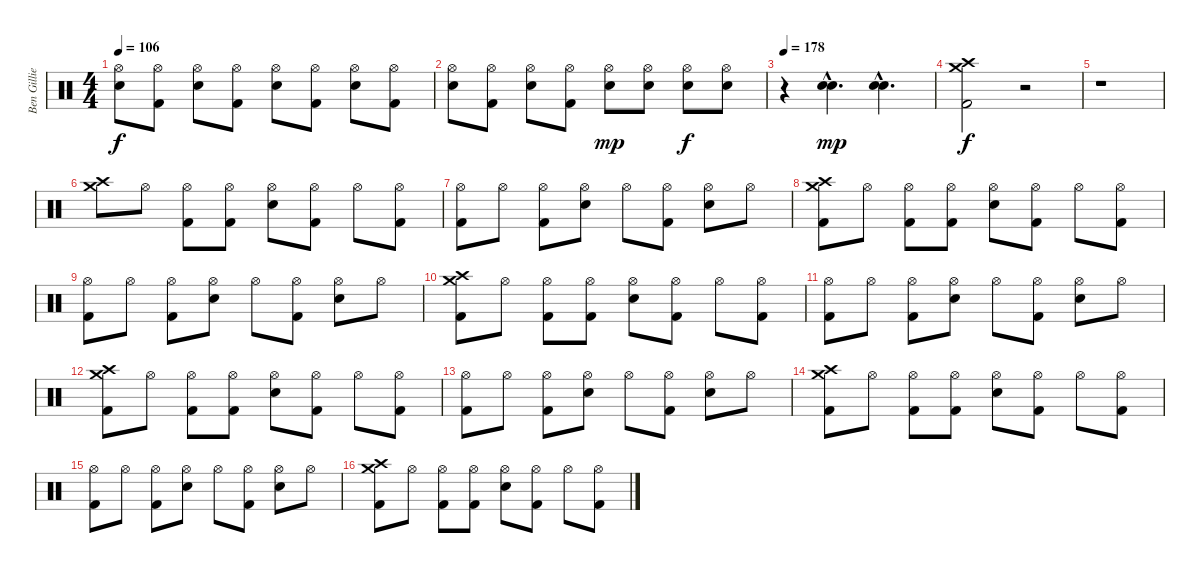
\track ("Ben Gillies" "Ben Gillie") {instrument percussion}
\staff {score}
\articulation defaults
\ts (4 4)
\tempo 106
\clef neutral
\ks c
("Hi-Hat (open)" "Electric Snare (hit)").8{dy f} ("Hi-Hat (open)" "Kick (hit) 2").8 ("Hi-Hat (open)" "Electric Snare (hit)").8 ("Hi-Hat (open)" "Kick (hit) 2").8 ("Hi-Hat (open)" "Electric Snare (hit)").8 ("Hi-Hat (open)" "Kick (hit) 2").8 ("Hi-Hat (open)" "Electric Snare (hit)").8 ("Hi-Hat (open)" "Kick (hit) 2").8 |
("Hi-Hat (open)" "Electric Snare (hit)").8 ("Hi-Hat (open)" "Kick (hit) 2").8 ("Hi-Hat (open)" "Electric Snare (hit)").8 ("Hi-Hat (open)" "Kick (hit) 2").8 ("Hi-Hat (open)" "Electric Snare (hit)").8{dy mp} ("Hi-Hat (open)" "Electric Snare (hit)").8 ("Hi-Hat (open)" "Electric Snare (hit)").8{dy f} ("Hi-Hat (open)" "Electric Snare (hit)").8 |
\tempo 178
r.4 ("Electric Snare (hit)"{hac} "Electric Snare (hit)"{hac}).4{d dy mp} ("Electric Snare (hit)"{hac} "Electric Snare (hit)"{hac}).4{d} |
("Crash high (hit)" "Crash medium (hit)" "Kick (hit) 2").2{dy f} r.2 |
r.1 |
("Crash high (hit)" "Crash medium (hit)").8 "Hi-Hat (open)".8 ("Hi-Hat (open)" "Kick (hit) 2").8 ("Hi-Hat (open)" "Kick (hit) 2").8 ("Hi-Hat (open)" "Electric Snare (hit)").8 ("Hi-Hat (open)" "Kick (hit) 2").8 "Hi-Hat (open)".8 ("Hi-Hat (open)" "Kick (hit) 2").8 |
("Hi-Hat (open)" "Kick (hit) 2").8 "Hi-Hat (open)".8 ("Hi-Hat (open)" "Kick (hit) 2").8 ("Hi-Hat (open)" "Electric Snare (hit)").8 "Hi-Hat (open)".8 ("Hi-Hat (open)" "Kick (hit) 2").8 ("Hi-Hat (open)" "Electric Snare (hit)").8 "Hi-Hat (open)".8 |
("Crash high (hit)" "Crash medium (hit)" "Kick (hit) 2").8 "Hi-Hat (open)".8 ("Hi-Hat (open)" "Kick (hit) 2").8 ("Hi-Hat (open)" "Kick (hit) 2").8 ("Hi-Hat (open)" "Electric Snare (hit)").8 ("Hi-Hat (open)" "Kick (hit) 2").8 "Hi-Hat (open)".8 ("Hi-Hat (open)" "Kick (hit) 2").8 |
("Hi-Hat (open)" "Kick (hit) 2").8 "Hi-Hat (open)".8 ("Hi-Hat (open)" "Kick (hit) 2").8 ("Hi-Hat (open)" "Electric Snare (hit)").8 "Hi-Hat (open)".8 ("Hi-Hat (open)" "Kick (hit) 2").8 ("Hi-Hat (open)" "Electric Snare (hit)").8 "Hi-Hat (open)".8 |
("Crash high (hit)" "Crash medium (hit)" "Kick (hit) 2").8 "Hi-Hat (open)".8 ("Hi-Hat (open)" "Kick (hit) 2").8 ("Hi-Hat (open)" "Kick (hit) 2").8 ("Hi-Hat (open)" "Electric Snare (hit)").8 ("Hi-Hat (open)" "Kick (hit) 2").8 "Hi-Hat (open)".8 ("Hi-Hat (open)" "Kick (hit) 2").8 |
("Hi-Hat (open)" "Kick (hit) 2").8 "Hi-Hat (open)".8 ("Hi-Hat (open)" "Kick (hit) 2").8 ("Hi-Hat (open)" "Electric Snare (hit)").8 "Hi-Hat (open)".8 ("Hi-Hat (open)" "Kick (hit) 2").8 ("Hi-Hat (open)" "Electric Snare (hit)").8 "Hi-Hat (open)".8 |
("Crash high (hit)" "Crash medium (hit)" "Kick (hit) 2").8 "Hi-Hat (open)".8 ("Hi-Hat (open)" "Kick (hit) 2").8 ("Hi-Hat (open)" "Kick (hit) 2").8 ("Hi-Hat (open)" "Electric Snare (hit)").8 ("Hi-Hat (open)" "Kick (hit) 2").8 "Hi-Hat (open)".8 ("Hi-Hat (open)" "Kick (hit) 2").8 |
("Hi-Hat (open)" "Kick (hit) 2").8 "Hi-Hat (open)".8 ("Hi-Hat (open)" "Kick (hit) 2").8 ("Hi-Hat (open)" "Electric Snare (hit)").8 "Hi-Hat (open)".8 ("Hi-Hat (open)" "Kick (hit) 2").8 ("Hi-Hat (open)" "Electric Snare (hit)").8 "Hi-Hat (open)".8 |
("Crash high (hit)" "Crash medium (hit)" "Kick (hit) 2").8 "Hi-Hat (open)".8 ("Hi-Hat (open)" "Kick (hit) 2").8 ("Hi-Hat (open)" "Kick (hit) 2").8 ("Hi-Hat (open)" "Electric Snare (hit)").8 ("Hi-Hat (open)" "Kick (hit) 2").8 "Hi-Hat (open)".8 ("Hi-Hat (open)" "Kick (hit) 2").8 |
("Hi-Hat (open)" "Kick (hit) 2").8 "Hi-Hat (open)".8 ("Hi-Hat (open)" "Kick (hit) 2").8 ("Hi-Hat (open)" "Electric Snare (hit)").8 "Hi-Hat (open)".8 ("Hi-Hat (open)" "Kick (hit) 2").8 ("Hi-Hat (open)" "Electric Snare (hit)").8 "Hi-Hat (open)".8 |
("Crash high (hit)" "Crash medium (hit)" "Kick (hit) 2").8 "Hi-Hat (open)".8 ("Hi-Hat (open)" "Kick (hit) 2").8 ("Hi-Hat (open)" "Kick (hit) 2").8 ("Hi-Hat (open)" "Electric Snare (hit)").8 ("Hi-Hat (open)" "Kick (hit) 2").8 "Hi-Hat (open)".8 ("Hi-Hat (open)" "Kick (hit) 2").8
